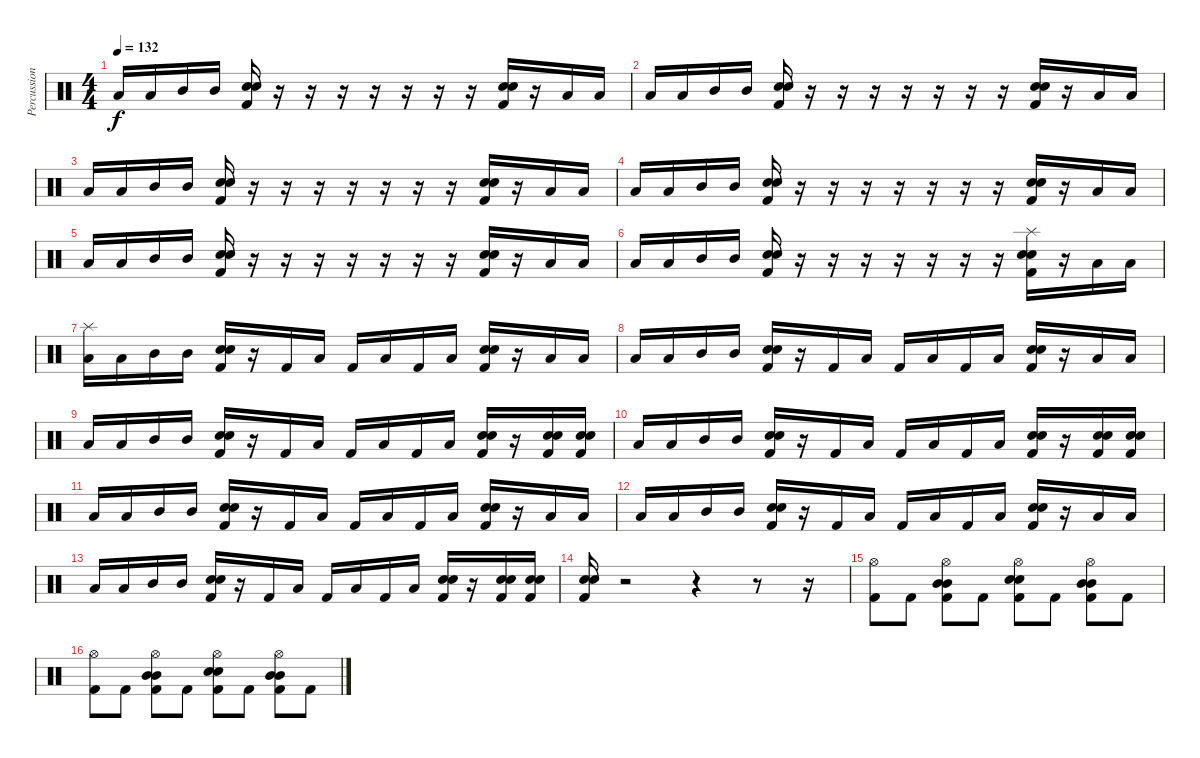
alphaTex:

\track ("Percussion" "Percussion") {instrument percussion}
\staff {score}
\articulation defaults
\ts (4 4)
\tempo 132
\clef neutral
\ks c "Low Tom (hit)".16{dy f} "Low Tom (hit)".16 "Mid Tom (hit)".16 "Mid Tom (hit)".16
("Electric Snare (hit)" "Snare (hit) 2" "Kick (hit) 2").16 r.16 r.16 r.16 r.16 r.16 r.16 r.16 ("Electric Snare (hit)" "Snare (hit) 2" "Kick (hit) 2").16 r.16 "Low Tom (hit)".16 "Low Tom (hit)".16 |
"Low Tom (hit)".16 "Low Tom (hit)".16 "Mid Tom (hit)".16 "Mid Tom (hit)".16 ("Electric Snare (hit)" "Snare (hit) 2" "Kick (hit) 2").16 r.16 r.16 r.16 r.16 r.16 r.16 r.16 ("Electric Snare (hit)" "Snare (hit) 2" "Kick (hit) 2").16 r.16 "Low Tom (hit)".16 "Low Tom (hit)".16 |
"Low Tom (hit)".16 "Low Tom (hit)".16 "Mid Tom (hit)".16 "Mid Tom (hit)".16 ("Electric Snare (hit)" "Snare (hit) 2" "Kick (hit) 2").16 r.16 r.16 r.16 r.16 r.16 r.16 r.16 ("Electric Snare (hit)" "Snare (hit) 2" "Kick (hit) 2").16 r.16 "Low Tom (hit)".16 "Low Tom (hit)".16 |
"Low Tom (hit)".16 "Low Tom (hit)".16 "Mid Tom (hit)".16 "Mid Tom (hit)".16 ("Electric Snare (hit)" "Snare (hit) 2" "Kick (hit) 2").16 r.16 r.16 r.16 r.16 r.16 r.16 r.16 ("Electric Snare (hit)" "Snare (hit) 2" "Kick (hit) 2").16 r.16 "Low Tom (hit)".16 "Low Tom (hit)".16 |
"Low Tom (hit)".16 "Low Tom (hit)".16 "Mid Tom (hit)".16 "Mid Tom (hit)".16 ("Electric Snare (hit)" "Snare (hit) 2" "Kick (hit) 2").16 r.16 r.16 r.16 r.16 r.16 r.16 r.16 ("Electric Snare (hit)" "Snare (hit) 2" "Kick (hit) 2").16 r.16 "Low Tom (hit)".16 "Low Tom (hit)".16 |
"Low Tom (hit)".16 "Low Tom (hit)".16 "Mid Tom (hit)".16 "Mid Tom (hit)".16 ("Electric Snare (hit)" "Snare (hit) 2" "Kick (hit) 2").16 r.16 r.16 r.16 r.16 r.16 r.16 r.16 ("Splash (hit)" "Electric Snare (hit)" "Snare (hit) 2" "Kick (hit) 2").16 r.16 "Low Tom (hit)".16 "Low Tom (hit)".16 |
("Splash (hit)" "Low Tom (hit)").16 "Low Tom (hit)".16 "Mid Tom (hit)".16 "Mid Tom (hit)".16 ("Electric Snare (hit)" "Snare (hit) 2" "Kick (hit) 2").16 r.16 "Kick (hit) 2".16 "Low Tom (hit)".16 "Kick (hit) 2".16 "Low Tom (hit)".16 "Kick (hit) 2".16 "Low Tom (hit)".16 ("Electric Snare (hit)" "Snare (hit) 2" "Kick (hit) 2").16 r.16 "Low Tom (hit)".16 "Low Tom (hit)".16 |
"Low Tom (hit)".16 "Low Tom (hit)".16 "Mid Tom (hit)".16 "Mid Tom (hit)".16 ("Electric Snare (hit)" "Snare (hit) 2" "Kick (hit) 2").16 r.16 "Kick (hit) 2".16 "Low Tom (hit)".16 "Kick (hit) 2".16 "Low Tom (hit)".16 "Kick (hit) 2".16 "Low Tom (hit)".16 ("Electric Snare (hit)" "Snare (hit) 2" "Kick (hit) 2").16 r.16 "Low Tom (hit)".16 "Low Tom (hit)".16 |
"Low Tom (hit)".16 "Low Tom (hit)".16 "Mid Tom (hit)".16 "Mid Tom (hit)".16 ("Electric Snare (hit)" "Snare (hit) 2" "Kick (hit) 2").16 r.16 "Kick (hit) 2".16 "Low Tom (hit)".16 "Kick (hit) 2".16 "Low Tom (hit)".16 "Kick (hit) 2".16 "Low Tom (hit)".16 ("Electric Snare (hit)" "Snare (hit) 2" "Kick (hit) 2").16 r.16 ("Electric Snare (hit)" "Snare (hit) 2" "Kick (hit) 2").16 ("Electric Snare (hit)" "Snare (hit) 2" "Kick (hit) 2").16 |
"Low Tom (hit)".16 "Low Tom (hit)".16 "Mid Tom (hit)".16 "Mid Tom (hit)".16 ("Electric Snare (hit)" "Snare (hit) 2" "Kick (hit) 2").16 r.16 "Kick (hit) 2".16 "Low Tom (hit)".16 "Kick (hit) 2".16 "Low Tom (hit)".16 "Kick (hit) 2".16 "Low Tom (hit)".16 ("Electric Snare (hit)" "Snare (hit) 2" "Kick (hit) 2").16 r.16 ("Electric Snare (hit)" "Snare (hit) 2" "Kick (hit) 2").16 ("Electric Snare (hit)" "Snare (hit) 2" "Kick (hit) 2").16 |
"Low Tom (hit)".16 "Low Tom (hit)".16 "Mid Tom (hit)".16 "Mid Tom (hit)".16 ("Electric Snare (hit)" "Snare (hit) 2" "Kick (hit) 2").16 r.16 "Kick (hit) 2".16 "Low Tom (hit)".16 "Kick (hit) 2".16 "Low Tom (hit)".16 "Kick (hit) 2".16 "Low Tom (hit)".16 ("Electric Snare (hit)" "Snare (hit) 2" "Kick (hit) 2").16 r.16 "Low Tom (hit)".16 "Low Tom (hit)".16 |
"Low Tom (hit)".16 "Low Tom (hit)".16 "Mid Tom (hit)".16 "Mid Tom (hit)".16 ("Electric Snare (hit)" "Snare (hit) 2" "Kick (hit) 2").16 r.16 "Kick (hit) 2".16 "Low Tom (hit)".16 "Kick (hit) 2".16 "Low Tom (hit)".16 "Kick (hit) 2".16 "Low Tom (hit)".16 ("Electric Snare (hit)" "Snare (hit) 2" "Kick (hit) 2").16 r.16 "Low Tom (hit)".16 "Low Tom (hit)".16 |
"Low Tom (hit)".16 "Low Tom (hit)".16 "Mid Tom (hit)".16 "Mid Tom (hit)".16 ("Electric Snare (hit)" "Snare (hit) 2" "Kick (hit) 2").16 r.16 "Kick (hit) 2".16 "Low Tom (hit)".16 "Kick (hit) 2".16 "Low Tom (hit)".16 "Kick (hit) 2".16 "Low Tom (hit)".16 ("Electric Snare (hit)" "Snare (hit) 2" "Kick (hit) 2").16 r.16 ("Electric Snare (hit)" "Snare (hit) 2" "Kick (hit) 2").16 ("Electric Snare (hit)" "Snare (hit) 2" "Kick (hit) 2").16 |
("Electric Snare (hit)" "Snare (hit) 2" "Kick (hit) 2").16 r.2 r.4 r.8 r.16 |
("Hi-Hat (open)" "Kick (hit) 2").8 "Kick (hit) 2".8 ("Hi-Hat (open)" "Mid Tom (hit)" "Mid Tom (hit)" "Kick (hit) 2").8 "Kick (hit) 2".8 ("Hi-Hat (open)" "Snare (hit) 2" "Snare (hit) 2" "Kick (hit) 2").8 "Kick (hit) 2".8 ("Hi-Hat (open)" "Mid Tom (hit)" "Mid Tom (hit)" "Kick (hit) 2").8 "Kick (hit) 2".8 |
("Hi-Hat (open)" "Kick (hit) 2").8 "Kick (hit) 2".8 ("Hi-Hat (open)" "Mid Tom (hit)" "Mid Tom (hit)" "Kick (hit) 2").8 "Kick (hit) 2".8 ("Hi-Hat (open)" "Snare (hit) 2" "Snare (hit) 2" "Kick (hit) 2").8 "Kick (hit) 2".8 ("Hi-Hat (open)" "Mid Tom (hit)" "Mid Tom (hit)" "Kick (hit) 2").8 "Kick (hit) 2".8
